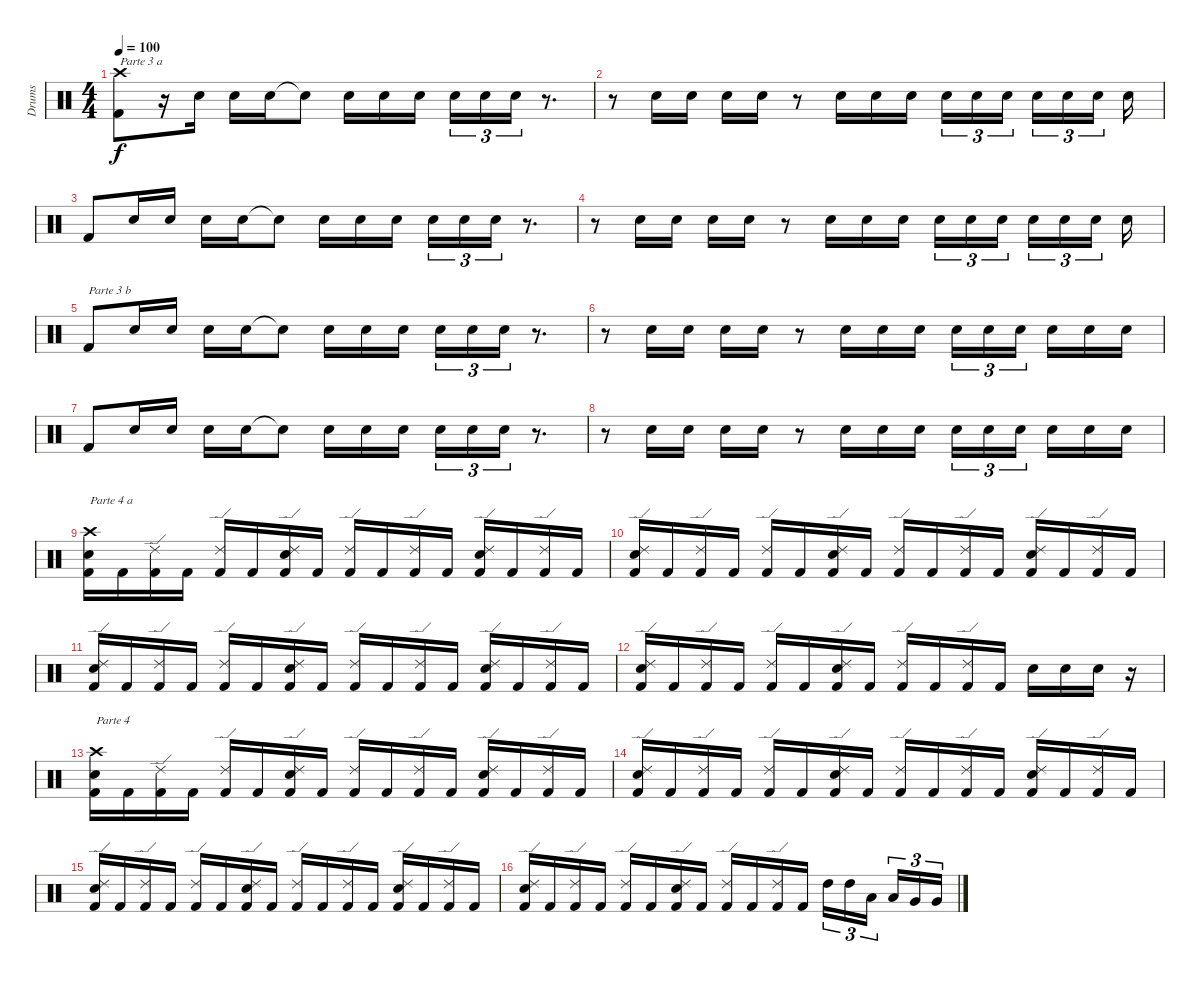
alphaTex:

\track ("Drums" "Drums") {instrument percussion}
\staff {score}
\articulation defaults
\ts (4 4)
\tempo 100
\clef neutral
\ks c
("Crash high (hit)" "Kick (hit) 2").8{txt "Parte 3 a" dy f} r.16 "Electric Snare (hit)".16 "Electric Snare (hit)".16 "Electric Snare (hit)".16 "Snare (hit)"{t}.8 "Electric Snare (hit)".16 "Electric Snare (hit)".16 "Electric Snare (hit)".16 "Electric Snare (hit)".16{tu (3 2)} "Electric Snare (hit)".16{tu (3 2)} "Electric Snare (hit)".16{tu (3 2)} r.8{d} |
r.8 "Electric Snare (hit)".16 "Electric Snare (hit)".16 "Electric Snare (hit)".16 "Electric Snare (hit)".16 r.8 "Electric Snare (hit)".16 "Electric Snare (hit)".16 "Electric Snare (hit)".16 "Electric Snare (hit)".16{tu (3 2)} "Electric Snare (hit)".16{tu (3 2)} "Electric Snare (hit)".16{tu (3 2)} "Electric Snare (hit)".16{tu (3 2)} "Electric Snare (hit)".16{tu (3 2)} "Electric Snare (hit)".16{tu (3 2)} "Electric Snare (hit)".16 |
"Kick (hit) 2".8 "Electric Snare (hit)".16 "Electric Snare (hit)".16 "Electric Snare (hit)".16 "Electric Snare (hit)".16 "Snare (hit)"{t}.8 "Electric Snare (hit)".16 "Electric Snare (hit)".16 "Electric Snare (hit)".16 "Electric Snare (hit)".16{tu (3 2)} "Electric Snare (hit)".16{tu (3 2)} "Electric Snare (hit)".16{tu (3 2)} r.8{d} |
r.8 "Electric Snare (hit)".16 "Electric Snare (hit)".16 "Electric Snare (hit)".16 "Electric Snare (hit)".16 r.8 "Electric Snare (hit)".16 "Electric Snare (hit)".16 "Electric Snare (hit)".16 "Electric Snare (hit)".16{tu (3 2)} "Electric Snare (hit)".16{tu (3 2)} "Electric Snare (hit)".16{tu (3 2)} "Electric Snare (hit)".16{tu (3 2)} "Electric Snare (hit)".16{tu (3 2)} "Electric Snare (hit)".16{tu (3 2)} "Electric Snare (hit)".16 |
"Kick (hit) 2".8{txt "Parte 3 b"} "Electric Snare (hit)".16 "Electric Snare (hit)".16 "Electric Snare (hit)".16 "Electric Snare (hit)".16 "Snare (hit)"{t}.8 "Electric Snare (hit)".16 "Electric Snare (hit)".16 "Electric Snare (hit)".16 "Electric Snare (hit)".16{tu (3 2)} "Electric Snare (hit)".16{tu (3 2)} "Electric Snare (hit)".16{tu (3 2)} r.8{d} |
r.8 "Electric Snare (hit)".16 "Electric Snare (hit)".16 "Electric Snare (hit)".16 "Electric Snare (hit)".16 r.8 "Electric Snare (hit)".16 "Electric Snare (hit)".16 "Electric Snare (hit)".16 "Electric Snare (hit)".16{tu (3 2)} "Electric Snare (hit)".16{tu (3 2)} "Electric Snare (hit)".16{tu (3 2)} "Electric Snare (hit)".16 "Electric Snare (hit)".16 "Electric Snare (hit)".16 |
"Kick (hit) 2".8 "Electric Snare (hit)".16 "Electric Snare (hit)".16 "Electric Snare (hit)".16 "Electric Snare (hit)".16 "Snare (hit)"{t}.8 "Electric Snare (hit)".16 "Electric Snare (hit)".16 "Electric Snare (hit)".16 "Electric Snare (hit)".16{tu (3 2)} "Electric Snare (hit)".16{tu (3 2)} "Electric Snare (hit)".16{tu (3 2)} r.8{d} |
r.8 "Electric Snare (hit)".16 "Electric Snare (hit)".16 "Electric Snare (hit)".16 "Electric Snare (hit)".16 r.8 "Electric Snare (hit)".16 "Electric Snare (hit)".16 "Electric Snare (hit)".16 "Electric Snare (hit)".16{tu (3 2)} "Electric Snare (hit)".16{tu (3 2)} "Electric Snare (hit)".16{tu (3 2)} "Electric Snare (hit)".16 "Electric Snare (hit)".16 "Electric Snare (hit)".16 |
("Crash high (hit)" "Electric Snare (hit)" "Kick (hit) 2").16{txt "Parte 4 a"} "Kick (hit) 2".16 ("Ride (edge) 2" "Kick (hit) 2").16 "Kick (hit) 2".16 ("Ride (edge) 2" "Kick (hit) 2").16 "Kick (hit) 2".16 ("Ride (edge) 2" "Electric Snare (hit)" "Kick (hit) 2").16 "Kick (hit) 2".16 ("Ride (edge) 2" "Kick (hit) 2").16 "Kick (hit) 2".16 ("Ride (edge) 2" "Kick (hit) 2").16 "Kick (hit) 2".16 ("Ride (edge) 2" "Electric Snare (hit)" "Kick (hit) 2").16 "Kick (hit) 2".16 ("Ride (edge) 2" "Kick (hit) 2").16 "Kick (hit) 2".16 |
("Ride (edge) 2" "Electric Snare (hit)" "Kick (hit) 2").16 "Kick (hit) 2".16 ("Ride (edge) 2" "Kick (hit) 2").16 "Kick (hit) 2".16 ("Ride (edge) 2" "Kick (hit) 2").16 "Kick (hit) 2".16 ("Ride (edge) 2" "Electric Snare (hit)" "Kick (hit) 2").16 "Kick (hit) 2".16 ("Ride (edge) 2" "Kick (hit) 2").16 "Kick (hit) 2".16 ("Ride (edge) 2" "Kick (hit) 2").16 "Kick (hit) 2".16 ("Ride (edge) 2" "Electric Snare (hit)" "Kick (hit) 2").16 "Kick (hit) 2".16 ("Ride (edge) 2" "Kick (hit) 2").16 "Kick (hit) 2".16 |
("Ride (edge) 2" "Electric Snare (hit)" "Kick (hit) 2").16 "Kick (hit) 2".16 ("Ride (edge) 2" "Kick (hit) 2").16 "Kick (hit) 2".16 ("Ride (edge) 2" "Kick (hit) 2").16 "Kick (hit) 2".16 ("Ride (edge) 2" "Electric Snare (hit)" "Kick (hit) 2").16 "Kick (hit) 2".16 ("Ride (edge) 2" "Kick (hit) 2").16 "Kick (hit) 2".16 ("Ride (edge) 2" "Kick (hit) 2").16 "Kick (hit) 2".16 ("Ride (edge) 2" "Electric Snare (hit)" "Kick (hit) 2").16 "Kick (hit) 2".16 ("Ride (edge) 2" "Kick (hit) 2").16 "Kick (hit) 2".16 |
("Ride (edge) 2" "Electric Snare (hit)" "Kick (hit) 2").16 "Kick (hit) 2".16 ("Ride (edge) 2" "Kick (hit) 2").16 "Kick (hit) 2".16 ("Ride (edge) 2" "Kick (hit) 2").16 "Kick (hit) 2".16 ("Ride (edge) 2" "Electric Snare (hit)" "Kick (hit) 2").16 "Kick (hit) 2".16 ("Ride (edge) 2" "Kick (hit) 2").16 "Kick (hit) 2".16 ("Ride (edge) 2" "Kick (hit) 2").16 "Kick (hit) 2".16 "Electric Snare (hit)".16 "Electric Snare (hit)".16 "Electric Snare (hit)".16 r.16 |
("Crash high (hit)" "Electric Snare (hit)" "Kick (hit) 2").16{txt "Parte 4"} "Kick (hit) 2".16 ("Ride (edge) 2" "Kick (hit) 2").16 "Kick (hit) 2".16 ("Ride (edge) 2" "Kick (hit) 2").16 "Kick (hit) 2".16 ("Ride (edge) 2" "Electric Snare (hit)" "Kick (hit) 2").16 "Kick (hit) 2".16 ("Ride (edge) 2" "Kick (hit) 2").16 "Kick (hit) 2".16 ("Ride (edge) 2" "Kick (hit) 2").16 "Kick (hit) 2".16 ("Ride (edge) 2" "Electric Snare (hit)" "Kick (hit) 2").16 "Kick (hit) 2".16 ("Ride (edge) 2" "Kick (hit) 2").16 "Kick (hit) 2".16 |
("Ride (edge) 2" "Electric Snare (hit)" "Kick (hit) 2").16 "Kick (hit) 2".16 ("Ride (edge) 2" "Kick (hit) 2").16 "Kick (hit) 2".16 ("Ride (edge) 2" "Kick (hit) 2").16 "Kick (hit) 2".16 ("Ride (edge) 2" "Electric Snare (hit)" "Kick (hit) 2").16 "Kick (hit) 2".16 ("Ride (edge) 2" "Kick (hit) 2").16 "Kick (hit) 2".16 ("Ride (edge) 2" "Kick (hit) 2").16 "Kick (hit) 2".16 ("Ride (edge) 2" "Electric Snare (hit)" "Kick (hit) 2").16 "Kick (hit) 2".16 ("Ride (edge) 2" "Kick (hit) 2").16 "Kick (hit) 2".16 |
("Ride (edge) 2" "Electric Snare (hit)" "Kick (hit) 2").16 "Kick (hit) 2".16 ("Ride (edge) 2" "Kick (hit) 2").16 "Kick (hit) 2".16 ("Ride (edge) 2" "Kick (hit) 2").16 "Kick (hit) 2".16 ("Ride (edge) 2" "Electric Snare (hit)" "Kick (hit) 2").16 "Kick (hit) 2".16 ("Ride (edge) 2" "Kick (hit) 2").16 "Kick (hit) 2".16 ("Ride (edge) 2" "Kick (hit) 2").16 "Kick (hit) 2".16 ("Ride (edge) 2" "Electric Snare (hit)" "Kick (hit) 2").16 "Kick (hit) 2".16 ("Ride (edge) 2" "Kick (hit) 2").16 "Kick (hit) 2".16 |
("Ride (edge) 2" "Electric Snare (hit)" "Kick (hit) 2").16 "Kick (hit) 2".16 ("Ride (edge) 2" "Kick (hit) 2").16 "Kick (hit) 2".16 ("Ride (edge) 2" "Kick (hit) 2").16 "Kick (hit) 2".16 ("Ride (edge) 2" "Electric Snare (hit)" "Kick (hit) 2").16 "Kick (hit) 2".16 ("Ride (edge) 2" "Kick (hit) 2").16 "Kick (hit) 2".16 ("Ride (edge) 2" "Kick (hit) 2").16 "Kick (hit) 2".16 "High Tom (hit)".16{tu (3 2)} "High Tom (hit)".16{tu (3 2)} "Low Tom (hit)".16{tu (3 2)} "Low Tom (hit)".16{tu (3 2)} "Very Low Tom (hit)".16{tu (3 2)} "Very Low Tom (hit)".16{tu (3 2)}
